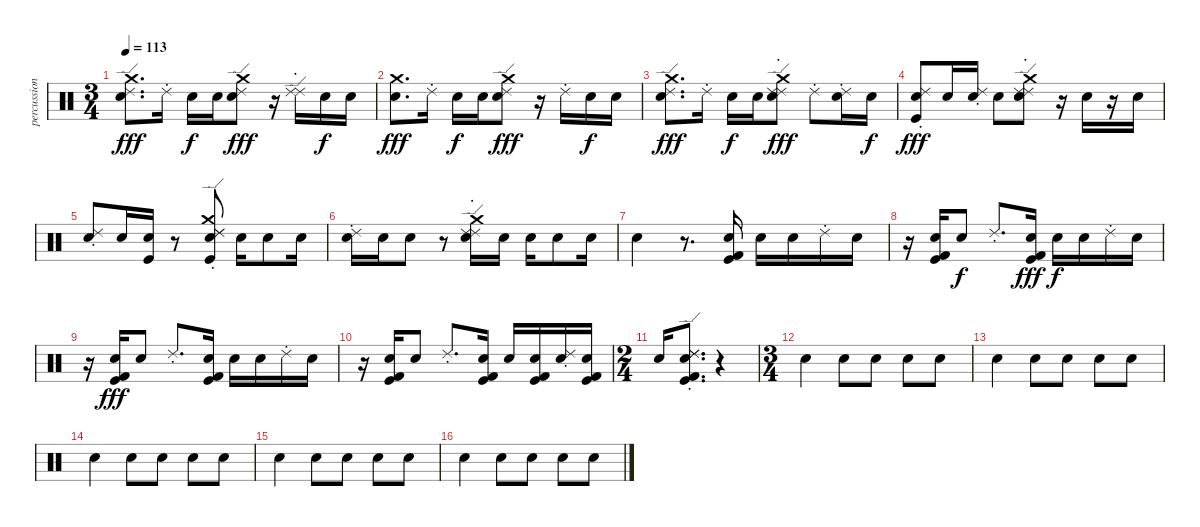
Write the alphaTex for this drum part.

\track ("percussion" "percussion") {instrument percussion}
\staff {score}
\articulation defaults
\ts (3 4)
\tempo 113
\clef neutral
\ks c
("Ride (edge) 2" "Crash medium (hit)" "Electric Snare (hit)").8{d dy fff} "Ride (choke) 2".16 "Electric Snare (hit)".16{dy f} "Electric Snare (hit)".16 ("Ride (edge) 2" "Crash medium (hit)" "Electric Snare (hit)").8{dy fff} r.16 ("Ride (edge) 2" "Ride (choke) 2").16 "Electric Snare (hit)".16{dy f} "Electric Snare (hit)".16 |
("Crash medium (hit)" "Electric Snare (hit)").8{d dy fff} "Ride (choke) 2".16 "Electric Snare (hit)".16{dy f} "Electric Snare (hit)".16 ("Ride (edge) 2" "Crash medium (hit)" "Electric Snare (hit)").8{dy fff} r.16 "Ride (choke) 2".16 "Electric Snare (hit)".16{dy f} "Electric Snare (hit)".16 |
("Ride (edge) 2" "Crash medium (hit)" "Electric Snare (hit)").8{d dy fff} "Ride (choke) 2".16 "Electric Snare (hit)".16{dy f} "Electric Snare (hit)".16 ("Ride (edge) 2" "Crash medium (hit)" "Electric Snare (hit)" "Ride (choke) 2").8{dy fff} "Ride (choke) 2".8 ("Electric Snare (hit)" "Ride (choke) 2").16 "Electric Snare (hit)".16{dy f} |
("Electric Snare (hit)" "Ride (choke) 2" "Kick (hit)").8{dy fff} "Electric Snare (hit)".16 ("Electric Snare (hit)" "Ride (choke) 2").16 "Electric Snare (hit)".8 ("Ride (edge) 2" "Crash medium (hit)" "Electric Snare (hit)" "Ride (choke) 2").8 r.16 "Electric Snare (hit)".16 r.16 "Electric Snare (hit)".16 |
("Electric Snare (hit)" "Ride (choke) 2").8 "Electric Snare (hit)".16 ("Electric Snare (hit)" "Kick (hit)").16 r.8 ("Ride (edge) 2" "Crash medium (hit)" "Electric Snare (hit)" "Ride (choke) 2" "Kick (hit)").8 "Electric Snare (hit)".16 "Electric Snare (hit)".8 "Electric Snare (hit)".16 |
("Electric Snare (hit)" "Ride (choke) 2").16 "Electric Snare (hit)".16 "Electric Snare (hit)".8 r.8 ("Ride (edge) 2" "Crash medium (hit)" "Electric Snare (hit)" "Ride (choke) 2").16 "Electric Snare (hit)".16 "Electric Snare (hit)".16 "Electric Snare (hit)".8 "Electric Snare (hit)".16 |
"Electric Snare (hit)".4 r.8{d} ("Kick (hit) 2" "Electric Snare (hit)" "Kick (hit)").16 "Electric Snare (hit)".16 "Electric Snare (hit)".16 "Ride (choke) 2".16 "Electric Snare (hit)".16 |
r.16 ("Kick (hit) 2" "Electric Snare (hit)" "Kick (hit)").16 "Electric Snare (hit)".8{dy f} "Ride (choke) 2".8{d} ("Kick (hit) 2" "Electric Snare (hit)" "Kick (hit)").16{dy fff} "Electric Snare (hit)".16{dy f} "Electric Snare (hit)".16 "Ride (choke) 2".16 "Electric Snare (hit)".16 |
r.16 ("Kick (hit) 2" "Electric Snare (hit)" "Kick (hit)").16{dy fff} "Electric Snare (hit)".8 "Ride (choke) 2".8{d} ("Kick (hit) 2" "Electric Snare (hit)" "Kick (hit)").16 "Electric Snare (hit)".16 "Electric Snare (hit)".16 "Ride (choke) 2".16 "Electric Snare (hit)".16 |
r.16 ("Kick (hit) 2" "Electric Snare (hit)" "Kick (hit)").16 "Electric Snare (hit)".8 "Ride (choke) 2".8{d} ("Kick (hit) 2" "Electric Snare (hit)" "Kick (hit)").16 "Electric Snare (hit)".16 ("Kick (hit) 2" "Electric Snare (hit)" "Kick (hit)").16 ("Electric Snare (hit)" "Ride (choke) 2").16 ("Kick (hit) 2" "Electric Snare (hit)" "Kick (hit)").16 |
\ts (2 4)
"Electric Snare (hit)".16 ("Ride (edge) 2" "Kick (hit) 2" "Electric Snare (hit)" "Ride (choke) 2" "Kick (hit)").8{d} r.4 |
\ts (3 4)
"Electric Snare (hit)".4 "Electric Snare (hit)".8 "Electric Snare (hit)".8 "Electric Snare (hit)".8 "Electric Snare (hit)".8 |
"Electric Snare (hit)".4 "Electric Snare (hit)".8 "Electric Snare (hit)".8 "Electric Snare (hit)".8 "Electric Snare (hit)".8 |
"Electric Snare (hit)".4 "Electric Snare (hit)".8 "Electric Snare (hit)".8 "Electric Snare (hit)".8 "Electric Snare (hit)".8 |
"Electric Snare (hit)".4 "Electric Snare (hit)".8 "Electric Snare (hit)".8 "Electric Snare (hit)".8 "Electric Snare (hit)".8 |
"Electric Snare (hit)".4 "Electric Snare (hit)".8 "Electric Snare (hit)".8 "Electric Snare (hit)".8 "Electric Snare (hit)".8
